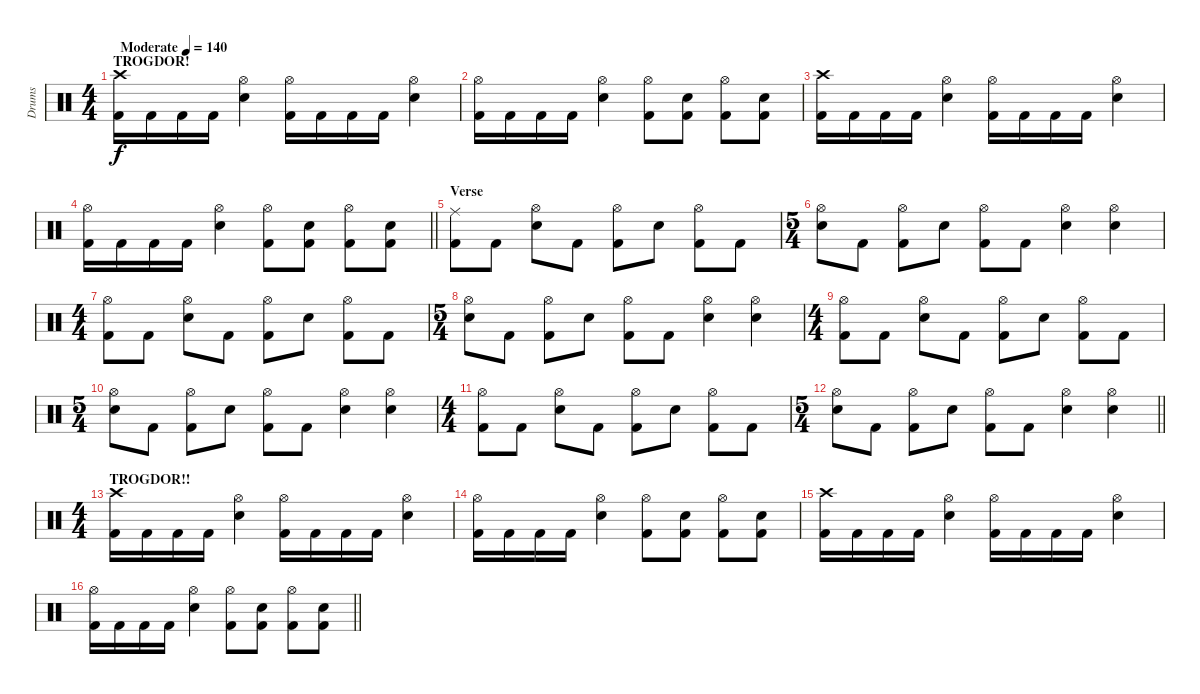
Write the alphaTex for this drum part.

\track ("Drums" "Drums") {instrument percussion}
\staff {score}
\articulation defaults
\ts (4 4)
\section ("" "TROGDOR!")
\tempo (140 "Moderate")
\clef neutral
\ks c
("Crash high (hit)" "Kick (hit) 2").16{dy f} "Kick (hit) 2".16 "Kick (hit) 2".16 "Kick (hit) 2".16 ("Hi-Hat (open)" "Electric Snare (hit)").4 ("Hi-Hat (open)" "Kick (hit) 2").16 "Kick (hit) 2".16 "Kick (hit) 2".16 "Kick (hit) 2".16 ("Hi-Hat (open)" "Electric Snare (hit)").4 |
("Hi-Hat (open)" "Kick (hit) 2").16 "Kick (hit) 2".16 "Kick (hit) 2".16 "Kick (hit) 2".16 ("Hi-Hat (open)" "Electric Snare (hit)").4 ("Hi-Hat (open)" "Kick (hit) 2").8 ("Electric Snare (hit)" "Kick (hit) 2").8 ("Hi-Hat (open)" "Kick (hit) 2").8 ("Electric Snare (hit)" "Kick (hit) 2").8 |
("Crash high (hit)" "Kick (hit) 2").16 "Kick (hit) 2".16 "Kick (hit) 2".16 "Kick (hit) 2".16 ("Hi-Hat (open)" "Electric Snare (hit)").4 ("Hi-Hat (open)" "Kick (hit) 2").16 "Kick (hit) 2".16 "Kick (hit) 2".16 "Kick (hit) 2".16 ("Hi-Hat (open)" "Electric Snare (hit)").4 |
\barLineRight lightlight
("Hi-Hat (open)" "Kick (hit) 2").16 "Kick (hit) 2".16 "Kick (hit) 2".16 "Kick (hit) 2".16 ("Hi-Hat (open)" "Electric Snare (hit)").4 ("Hi-Hat (open)" "Kick (hit) 2").8 ("Electric Snare (hit)" "Kick (hit) 2").8 ("Hi-Hat (open)" "Kick (hit) 2").8 ("Electric Snare (hit)" "Kick (hit) 2").8 |
\section ("" "Verse")
("Ride (middle)" "Kick (hit) 2").8 "Kick (hit) 2".8 ("Hi-Hat (open)" "Electric Snare (hit)").8 "Kick (hit) 2".8 ("Hi-Hat (open)" "Kick (hit) 2").8 "Electric Snare (hit)".8 ("Hi-Hat (open)" "Kick (hit) 2").8 "Kick (hit) 2".8 |
\ts (5 4)
("Hi-Hat (open)" "Electric Snare (hit)").8 "Kick (hit) 2".8 ("Hi-Hat (open)" "Kick (hit) 2").8 "Electric Snare (hit)".8 ("Hi-Hat (open)" "Kick (hit) 2").8 "Kick (hit) 2".8 ("Hi-Hat (open)" "Electric Snare (hit)").4 ("Hi-Hat (open)" "Electric Snare (hit)").4 |
\ts (4 4)
("Hi-Hat (open)" "Kick (hit) 2").8 "Kick (hit) 2".8 ("Hi-Hat (open)" "Electric Snare (hit)").8 "Kick (hit) 2".8 ("Hi-Hat (open)" "Kick (hit) 2").8 "Electric Snare (hit)".8 ("Hi-Hat (open)" "Kick (hit) 2").8 "Kick (hit) 2".8 |
\ts (5 4)
("Hi-Hat (open)" "Electric Snare (hit)").8 "Kick (hit) 2".8 ("Hi-Hat (open)" "Kick (hit) 2").8 "Electric Snare (hit)".8 ("Hi-Hat (open)" "Kick (hit) 2").8 "Kick (hit) 2".8 ("Hi-Hat (open)" "Electric Snare (hit)").4 ("Hi-Hat (open)" "Electric Snare (hit)").4 |
\ts (4 4)
("Hi-Hat (open)" "Kick (hit) 2").8 "Kick (hit) 2".8 ("Hi-Hat (open)" "Electric Snare (hit)").8 "Kick (hit) 2".8 ("Hi-Hat (open)" "Kick (hit) 2").8 "Electric Snare (hit)".8 ("Hi-Hat (open)" "Kick (hit) 2").8 "Kick (hit) 2".8 |
\ts (5 4)
("Hi-Hat (open)" "Electric Snare (hit)").8 "Kick (hit) 2".8 ("Hi-Hat (open)" "Kick (hit) 2").8 "Electric Snare (hit)".8 ("Hi-Hat (open)" "Kick (hit) 2").8 "Kick (hit) 2".8 ("Hi-Hat (open)" "Electric Snare (hit)").4 ("Hi-Hat (open)" "Electric Snare (hit)").4 |
\ts (4 4)
("Hi-Hat (open)" "Kick (hit) 2").8 "Kick (hit) 2".8 ("Hi-Hat (open)" "Electric Snare (hit)").8 "Kick (hit) 2".8 ("Hi-Hat (open)" "Kick (hit) 2").8 "Electric Snare (hit)".8 ("Hi-Hat (open)" "Kick (hit) 2").8 "Kick (hit) 2".8 |
\ts (5 4)
\barLineRight lightlight
("Hi-Hat (open)" "Electric Snare (hit)").8 "Kick (hit) 2".8 ("Hi-Hat (open)" "Kick (hit) 2").8 "Electric Snare (hit)".8 ("Hi-Hat (open)" "Kick (hit) 2").8 "Kick (hit) 2".8 ("Hi-Hat (open)" "Electric Snare (hit)").4 ("Hi-Hat (open)" "Electric Snare (hit)").4 |
\ts (4 4)
\section ("" "TROGDOR!!")
("Crash high (hit)" "Kick (hit) 2").16 "Kick (hit) 2".16 "Kick (hit) 2".16 "Kick (hit) 2".16 ("Hi-Hat (open)" "Electric Snare (hit)").4 ("Hi-Hat (open)" "Kick (hit) 2").16 "Kick (hit) 2".16 "Kick (hit) 2".16 "Kick (hit) 2".16 ("Hi-Hat (open)" "Electric Snare (hit)").4 |
("Hi-Hat (open)" "Kick (hit) 2").16 "Kick (hit) 2".16 "Kick (hit) 2".16 "Kick (hit) 2".16 ("Hi-Hat (open)" "Electric Snare (hit)").4 ("Hi-Hat (open)" "Kick (hit) 2").8 ("Electric Snare (hit)" "Kick (hit) 2").8 ("Hi-Hat (open)" "Kick (hit) 2").8 ("Electric Snare (hit)" "Kick (hit) 2").8 |
("Crash high (hit)" "Kick (hit) 2").16 "Kick (hit) 2".16 "Kick (hit) 2".16 "Kick (hit) 2".16 ("Hi-Hat (open)" "Electric Snare (hit)").4 ("Hi-Hat (open)" "Kick (hit) 2").16 "Kick (hit) 2".16 "Kick (hit) 2".16 "Kick (hit) 2".16 ("Hi-Hat (open)" "Electric Snare (hit)").4 |
\barLineRight lightlight
("Hi-Hat (open)" "Kick (hit) 2").16 "Kick (hit) 2".16 "Kick (hit) 2".16 "Kick (hit) 2".16 ("Hi-Hat (open)" "Electric Snare (hit)").4 ("Hi-Hat (open)" "Kick (hit) 2").8 ("Electric Snare (hit)" "Kick (hit) 2").8 ("Hi-Hat (open)" "Kick (hit) 2").8 ("Electric Snare (hit)" "Kick (hit) 2").8
